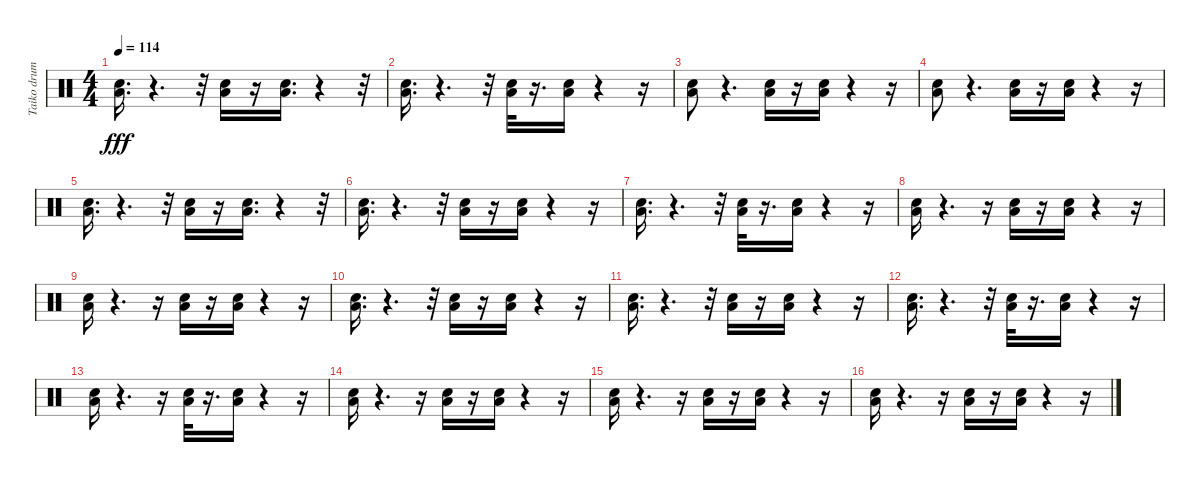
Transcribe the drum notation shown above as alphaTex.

\track ("Taiko drum" "Taiko drum") {instrument percussion}
\staff {score}
\articulation defaults
\ts (4 4)
\tempo 114
\clef neutral
\ks c
("Low Floor Tom (hit)" "Electric Snare (hit)").16{d dy fff} r.4{d} r.32 ("Low Floor Tom (hit)" "Electric Snare (hit)").16 r.16 ("Low Floor Tom (hit)" "Electric Snare (hit)").16{d} r.4 r.32 |
("Low Floor Tom (hit)" "Electric Snare (hit)").16{d} r.4{d} r.32 ("Electric Snare (hit)" "Low Floor Tom (hit)").32 r.16{d} ("Low Floor Tom (hit)" "Electric Snare (hit)").16 r.4 r.16 |
("Low Floor Tom (hit)" "Electric Snare (hit)").8 r.4{d} ("Low Floor Tom (hit)" "Electric Snare (hit)").16 r.16 ("Low Floor Tom (hit)" "Electric Snare (hit)").16 r.4 r.16 |
("Low Floor Tom (hit)" "Electric Snare (hit)").8 r.4{d} ("Low Floor Tom (hit)" "Electric Snare (hit)").16 r.16 ("Low Floor Tom (hit)" "Electric Snare (hit)").16 r.4 r.16 |
("Low Floor Tom (hit)" "Electric Snare (hit)").16{d} r.4{d} r.32 ("Low Floor Tom (hit)" "Electric Snare (hit)").16 r.16 ("Low Floor Tom (hit)" "Electric Snare (hit)").16{d} r.4 r.32 |
("Low Floor Tom (hit)" "Electric Snare (hit)").16{d} r.4{d} r.32 ("Low Floor Tom (hit)" "Electric Snare (hit)").16 r.16 ("Low Floor Tom (hit)" "Electric Snare (hit)").16 r.4 r.16 |
("Low Floor Tom (hit)" "Electric Snare (hit)").16{d} r.4{d} r.32 ("Low Floor Tom (hit)" "Electric Snare (hit)").32 r.16{d} ("Low Floor Tom (hit)" "Electric Snare (hit)").16 r.4 r.16 |
("Low Floor Tom (hit)" "Electric Snare (hit)").16 r.4{d} r.16 ("Low Floor Tom (hit)" "Electric Snare (hit)").16 r.16 ("Low Floor Tom (hit)" "Electric Snare (hit)").16 r.4 r.16 |
("Low Floor Tom (hit)" "Electric Snare (hit)").16 r.4{d} r.16 ("Low Floor Tom (hit)" "Electric Snare (hit)").16 r.16 ("Low Floor Tom (hit)" "Electric Snare (hit)").16 r.4 r.16 |
("Low Floor Tom (hit)" "Electric Snare (hit)").16{d} r.4{d} r.32 ("Low Floor Tom (hit)" "Electric Snare (hit)").16 r.16 ("Low Floor Tom (hit)" "Electric Snare (hit)").16 r.4 r.16 |
("Low Floor Tom (hit)" "Electric Snare (hit)").16{d} r.4{d} r.32 ("Low Floor Tom (hit)" "Electric Snare (hit)").16 r.16 ("Low Floor Tom (hit)" "Electric Snare (hit)").16 r.4 r.16 |
("Low Floor Tom (hit)" "Electric Snare (hit)").16{d} r.4{d} r.32 ("Low Floor Tom (hit)" "Electric Snare (hit)").32 r.16{d} ("Low Floor Tom (hit)" "Electric Snare (hit)").16 r.4 r.16 |
("Low Floor Tom (hit)" "Electric Snare (hit)").16 r.4{d} r.16 ("Low Floor Tom (hit)" "Electric Snare (hit)").32 r.16{d} ("Low Floor Tom (hit)" "Electric Snare (hit)").16 r.4 r.16 |
("Electric Snare (hit)" "Low Floor Tom (hit)").16 r.4{d} r.16 ("Low Floor Tom (hit)" "Electric Snare (hit)").16 r.16 ("Low Floor Tom (hit)" "Electric Snare (hit)").16 r.4 r.16 |
("Electric Snare (hit)" "Low Floor Tom (hit)").16 r.4{d} r.16 ("Low Floor Tom (hit)" "Electric Snare (hit)").16 r.16 ("Low Floor Tom (hit)" "Electric Snare (hit)").16 r.4 r.16 |
("Low Floor Tom (hit)" "Electric Snare (hit)").16 r.4{d} r.16 ("Low Floor Tom (hit)" "Electric Snare (hit)").16 r.16 ("Low Floor Tom (hit)" "Electric Snare (hit)").16 r.4 r.16
